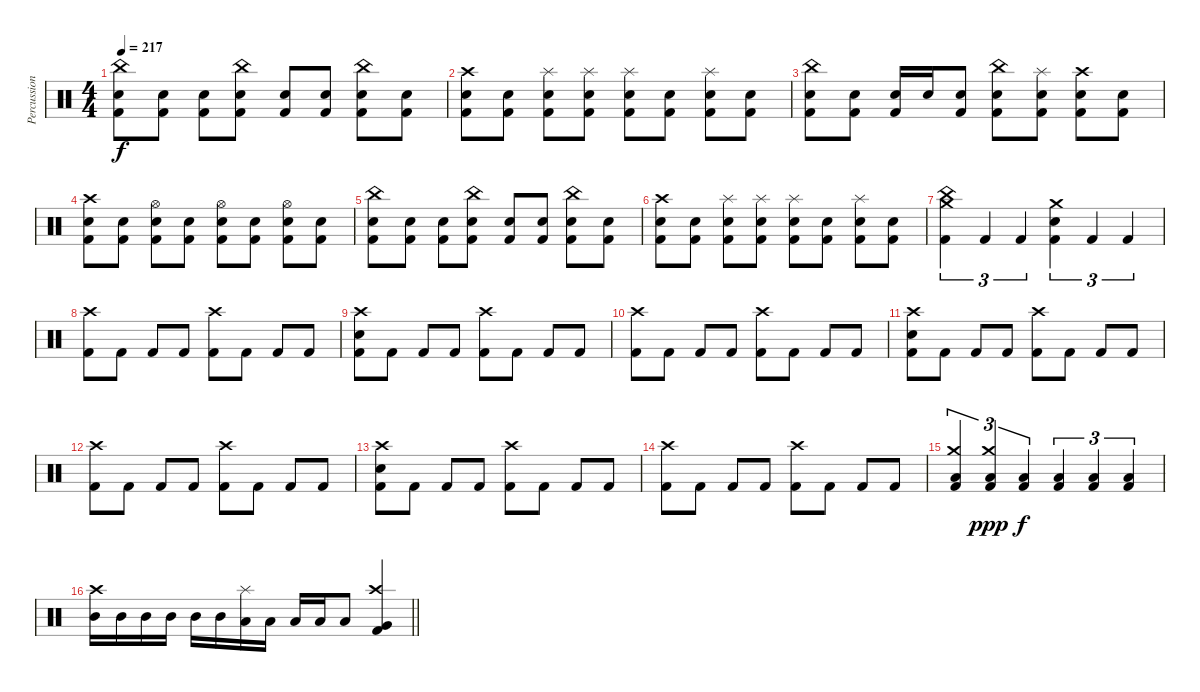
\track ("Percussion" "Percussion") {instrument percussion}
\staff {score}
\articulation defaults
\ts (4 4)
\tempo 217
\clef neutral
\ks c
("China (hit)" "Electric Snare (hit)" "Kick (hit) 2").8{dy f} ("Electric Snare (hit)" "Kick (hit) 2").8 ("Electric Snare (hit)" "Kick (hit) 2").8 ("China (hit)" "Electric Snare (hit)" "Kick (hit) 2").8 ("Electric Snare (hit)" "Kick (hit) 2").8 ("Electric Snare (hit)" "Kick (hit) 2").8 ("China (hit)" "Electric Snare (hit)" "Kick (hit) 2").8 ("Electric Snare (hit)" "Kick (hit) 2").8 |
("Crash high (hit)" "Electric Snare (hit)" "Kick (hit) 2").8 ("Electric Snare (hit)" "Kick (hit) 2").8 ("Splash (hit)" "Electric Snare (hit)" "Kick (hit) 2").8 ("Splash (hit)" "Electric Snare (hit)" "Kick (hit) 2").8 ("Splash (hit)" "Electric Snare (hit)" "Kick (hit) 2").8 ("Electric Snare (hit)" "Kick (hit) 2").8 ("Splash (hit)" "Electric Snare (hit)" "Kick (hit) 2").8 ("Electric Snare (hit)" "Kick (hit) 2").8 |
("China (hit)" "Electric Snare (hit)" "Kick (hit) 2").8 ("Electric Snare (hit)" "Kick (hit) 2").8 ("Electric Snare (hit)" "Kick (hit) 2").16 "Electric Snare (hit)".16 ("Electric Snare (hit)" "Kick (hit) 2").8 ("China (hit)" "Electric Snare (hit)" "Kick (hit) 2").8 ("Splash (hit)" "Electric Snare (hit)" "Kick (hit) 2").8 ("Crash high (hit)" "Electric Snare (hit)" "Kick (hit) 2").8 ("Electric Snare (hit)" "Kick (hit) 2").8 |
("Crash high (hit)" "Electric Snare (hit)" "Kick (hit) 2").8 ("Electric Snare (hit)" "Kick (hit) 2").8 ("Hi-Hat (open)" "Electric Snare (hit)" "Kick (hit) 2").8 ("Electric Snare (hit)" "Kick (hit) 2").8 ("Hi-Hat (open)" "Electric Snare (hit)" "Kick (hit) 2").8 ("Electric Snare (hit)" "Kick (hit) 2").8 ("Hi-Hat (open)" "Electric Snare (hit)" "Kick (hit) 2").8 ("Electric Snare (hit)" "Kick (hit) 2").8 |
("China (hit)" "Electric Snare (hit)" "Kick (hit) 2").8 ("Electric Snare (hit)" "Kick (hit) 2").8 ("Electric Snare (hit)" "Kick (hit) 2").8 ("China (hit)" "Electric Snare (hit)" "Kick (hit) 2").8 ("Electric Snare (hit)" "Kick (hit) 2").8 ("Electric Snare (hit)" "Kick (hit) 2").8 ("China (hit)" "Electric Snare (hit)" "Kick (hit) 2").8 ("Electric Snare (hit)" "Kick (hit) 2").8 |
("Crash high (hit)" "Electric Snare (hit)" "Kick (hit) 2").8 ("Electric Snare (hit)" "Kick (hit) 2").8 ("Splash (hit)" "Electric Snare (hit)" "Kick (hit) 2").8 ("Splash (hit)" "Electric Snare (hit)" "Kick (hit) 2").8 ("Splash (hit)" "Electric Snare (hit)" "Kick (hit) 2").8 ("Electric Snare (hit)" "Kick (hit) 2").8 ("Splash (hit)" "Electric Snare (hit)" "Kick (hit) 2").8 ("Electric Snare (hit)" "Kick (hit) 2").8 |
("Crash medium (hit)" "China (hit)" "Kick (hit) 2").4{tu (3 2)} "Kick (hit) 2".4{tu (3 2)} "Kick (hit) 2".4{tu (3 2)} ("Crash medium (hit)" "Electric Snare (hit)" "Kick (hit) 2").4{tu (3 2)} "Kick (hit) 2".4{tu (3 2)} "Kick (hit) 2".4{tu (3 2)} |
("Crash high (hit)" "Kick (hit) 2").8 "Kick (hit) 2".8 "Kick (hit) 2".8 "Kick (hit) 2".8 ("Crash high (hit)" "Kick (hit) 2").8 "Kick (hit) 2".8 "Kick (hit) 2".8 "Kick (hit) 2".8 |
("Crash high (hit)" "Electric Snare (hit)" "Kick (hit) 2").8 "Kick (hit) 2".8 "Kick (hit) 2".8 "Kick (hit) 2".8 ("Crash high (hit)" "Kick (hit) 2").8 "Kick (hit) 2".8 "Kick (hit) 2".8 "Kick (hit) 2".8 |
("Crash high (hit)" "Kick (hit) 2").8 "Kick (hit) 2".8 "Kick (hit) 2".8 "Kick (hit) 2".8 ("Crash high (hit)" "Kick (hit) 2").8 "Kick (hit) 2".8 "Kick (hit) 2".8 "Kick (hit) 2".8 |
("Crash high (hit)" "Electric Snare (hit)" "Kick (hit) 2").8 "Kick (hit) 2".8 "Kick (hit) 2".8 "Kick (hit) 2".8 ("Crash high (hit)" "Kick (hit) 2").8 "Kick (hit) 2".8 "Kick (hit) 2".8 "Kick (hit) 2".8 |
("Crash high (hit)" "Kick (hit) 2").8 "Kick (hit) 2".8 "Kick (hit) 2".8 "Kick (hit) 2".8 ("Crash high (hit)" "Kick (hit) 2").8 "Kick (hit) 2".8 "Kick (hit) 2".8 "Kick (hit) 2".8 |
("Crash high (hit)" "Electric Snare (hit)" "Kick (hit) 2").8 "Kick (hit) 2".8 "Kick (hit) 2".8 "Kick (hit) 2".8 ("Crash high (hit)" "Kick (hit) 2").8 "Kick (hit) 2".8 "Kick (hit) 2".8 "Kick (hit) 2".8 |
("Crash high (hit)" "Kick (hit) 2").8 "Kick (hit) 2".8 "Kick (hit) 2".8 "Kick (hit) 2".8 ("Crash high (hit)" "Kick (hit) 2").8 "Kick (hit) 2".8 "Kick (hit) 2".8 "Kick (hit) 2".8 |
("Crash medium (hit)" "Low Floor Tom (hit)" "Kick (hit) 2").4{tu (3 2)} ("Crash medium (hit)" "Low Floor Tom (hit)" "Kick (hit) 2").4{tu (3 2) dy ppp} ("Low Floor Tom (hit)" "Kick (hit) 2").4{tu (3 2) dy f} ("Low Floor Tom (hit)" "Kick (hit) 2").4{tu (3 2)} ("Low Floor Tom (hit)" "Kick (hit) 2").4{tu (3 2)} ("Low Floor Tom (hit)" "Kick (hit) 2").4{tu (3 2)} |
\barLineRight lightlight
("Crash high (hit)" "Mid Tom (hit)").16 "Mid Tom (hit)".16 "Mid Tom (hit)".16 "Mid Tom (hit)".16 "Mid Tom (hit)".16 "Mid Tom (hit)".16 ("Splash (hit)" "Low Tom (hit)").16 "Low Tom (hit)".16 "Low Tom (hit)".16 "Low Tom (hit)".16 "Low Tom (hit)".8 ("Crash high (hit)" "Very Low Tom (hit)" "Kick (hit) 2").4
